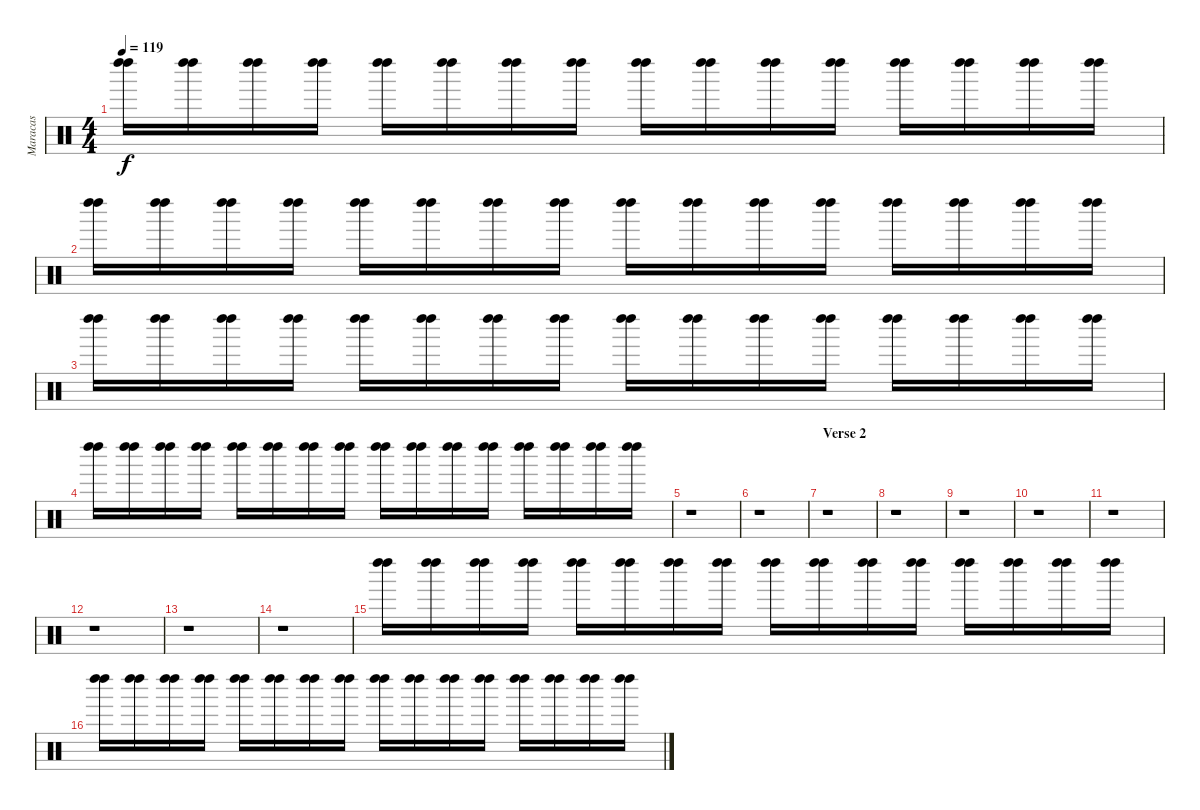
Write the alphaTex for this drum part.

\track ("Maracas" "Maracas") {instrument percussion}
\staff {score}
\articulation defaults
\ts (4 4)
\tempo 119
\clef neutral
\ks c
("Left Maraca (hit)" "Left Maraca (hit)").16{dy f} ("Left Maraca (hit)" "Left Maraca (hit)").16 ("Left Maraca (hit)" "Left Maraca (hit)").16 ("Left Maraca (hit)" "Left Maraca (hit)").16 ("Left Maraca (hit)" "Left Maraca (hit)").16 ("Left Maraca (hit)" "Left Maraca (hit)").16 ("Left Maraca (hit)" "Left Maraca (hit)").16 ("Left Maraca (hit)" "Left Maraca (hit)").16 ("Left Maraca (hit)" "Left Maraca (hit)").16 ("Left Maraca (hit)" "Left Maraca (hit)").16 ("Left Maraca (hit)" "Left Maraca (hit)").16 ("Left Maraca (hit)" "Left Maraca (hit)").16 ("Left Maraca (hit)" "Left Maraca (hit)").16 ("Left Maraca (hit)" "Left Maraca (hit)").16 ("Left Maraca (hit)" "Left Maraca (hit)").16 ("Left Maraca (hit)" "Left Maraca (hit)").16 |
("Left Maraca (hit)" "Left Maraca (hit)").16 ("Left Maraca (hit)" "Left Maraca (hit)").16 ("Left Maraca (hit)" "Left Maraca (hit)").16 ("Left Maraca (hit)" "Left Maraca (hit)").16 ("Left Maraca (hit)" "Left Maraca (hit)").16 ("Left Maraca (hit)" "Left Maraca (hit)").16 ("Left Maraca (hit)" "Left Maraca (hit)").16 ("Left Maraca (hit)" "Left Maraca (hit)").16 ("Left Maraca (hit)" "Left Maraca (hit)").16 ("Left Maraca (hit)" "Left Maraca (hit)").16 ("Left Maraca (hit)" "Left Maraca (hit)").16 ("Left Maraca (hit)" "Left Maraca (hit)").16 ("Left Maraca (hit)" "Left Maraca (hit)").16 ("Left Maraca (hit)" "Left Maraca (hit)").16 ("Left Maraca (hit)" "Left Maraca (hit)").16 ("Left Maraca (hit)" "Left Maraca (hit)").16 |
("Left Maraca (hit)" "Left Maraca (hit)").16 ("Left Maraca (hit)" "Left Maraca (hit)").16 ("Left Maraca (hit)" "Left Maraca (hit)").16 ("Left Maraca (hit)" "Left Maraca (hit)").16 ("Left Maraca (hit)" "Left Maraca (hit)").16 ("Left Maraca (hit)" "Left Maraca (hit)").16 ("Left Maraca (hit)" "Left Maraca (hit)").16 ("Left Maraca (hit)" "Left Maraca (hit)").16 ("Left Maraca (hit)" "Left Maraca (hit)").16 ("Left Maraca (hit)" "Left Maraca (hit)").16 ("Left Maraca (hit)" "Left Maraca (hit)").16 ("Left Maraca (hit)" "Left Maraca (hit)").16 ("Left Maraca (hit)" "Left Maraca (hit)").16 ("Left Maraca (hit)" "Left Maraca (hit)").16 ("Left Maraca (hit)" "Left Maraca (hit)").16 ("Left Maraca (hit)" "Left Maraca (hit)").16 |
("Left Maraca (hit)" "Left Maraca (hit)").16 ("Left Maraca (hit)" "Left Maraca (hit)").16 ("Left Maraca (hit)" "Left Maraca (hit)").16 ("Left Maraca (hit)" "Left Maraca (hit)").16 ("Left Maraca (hit)" "Left Maraca (hit)").16 ("Left Maraca (hit)" "Left Maraca (hit)").16 ("Left Maraca (hit)" "Left Maraca (hit)").16 ("Left Maraca (hit)" "Left Maraca (hit)").16 ("Left Maraca (hit)" "Left Maraca (hit)").16 ("Left Maraca (hit)" "Left Maraca (hit)").16 ("Left Maraca (hit)" "Left Maraca (hit)").16 ("Left Maraca (hit)" "Left Maraca (hit)").16 ("Left Maraca (hit)" "Left Maraca (hit)").16 ("Left Maraca (hit)" "Left Maraca (hit)").16 ("Left Maraca (hit)" "Left Maraca (hit)").16 ("Left Maraca (hit)" "Left Maraca (hit)").16 |
r.1 |
r.1 |
\section ("" "Verse 2")
r.1 |
r.1 |
r.1 |
r.1 |
r.1 |
r.1 |
r.1 |
r.1 |
("Left Maraca (hit)" "Left Maraca (hit)").16 ("Left Maraca (hit)" "Left Maraca (hit)").16 ("Left Maraca (hit)" "Left Maraca (hit)").16 ("Left Maraca (hit)" "Left Maraca (hit)").16 ("Left Maraca (hit)" "Left Maraca (hit)").16 ("Left Maraca (hit)" "Left Maraca (hit)").16 ("Left Maraca (hit)" "Left Maraca (hit)").16 ("Left Maraca (hit)" "Left Maraca (hit)").16 ("Left Maraca (hit)" "Left Maraca (hit)").16 ("Left Maraca (hit)" "Left Maraca (hit)").16 ("Left Maraca (hit)" "Left Maraca (hit)").16 ("Left Maraca (hit)" "Left Maraca (hit)").16 ("Left Maraca (hit)" "Left Maraca (hit)").16 ("Left Maraca (hit)" "Left Maraca (hit)").16 ("Left Maraca (hit)" "Left Maraca (hit)").16 ("Left Maraca (hit)" "Left Maraca (hit)").16 |
("Left Maraca (hit)" "Left Maraca (hit)").16 ("Left Maraca (hit)" "Left Maraca (hit)").16 ("Left Maraca (hit)" "Left Maraca (hit)").16 ("Left Maraca (hit)" "Left Maraca (hit)").16 ("Left Maraca (hit)" "Left Maraca (hit)").16 ("Left Maraca (hit)" "Left Maraca (hit)").16 ("Left Maraca (hit)" "Left Maraca (hit)").16 ("Left Maraca (hit)" "Left Maraca (hit)").16 ("Left Maraca (hit)" "Left Maraca (hit)").16 ("Left Maraca (hit)" "Left Maraca (hit)").16 ("Left Maraca (hit)" "Left Maraca (hit)").16 ("Left Maraca (hit)" "Left Maraca (hit)").16 ("Left Maraca (hit)" "Left Maraca (hit)").16 ("Left Maraca (hit)" "Left Maraca (hit)").16 ("Left Maraca (hit)" "Left Maraca (hit)").16 ("Left Maraca (hit)" "Left Maraca (hit)").16
